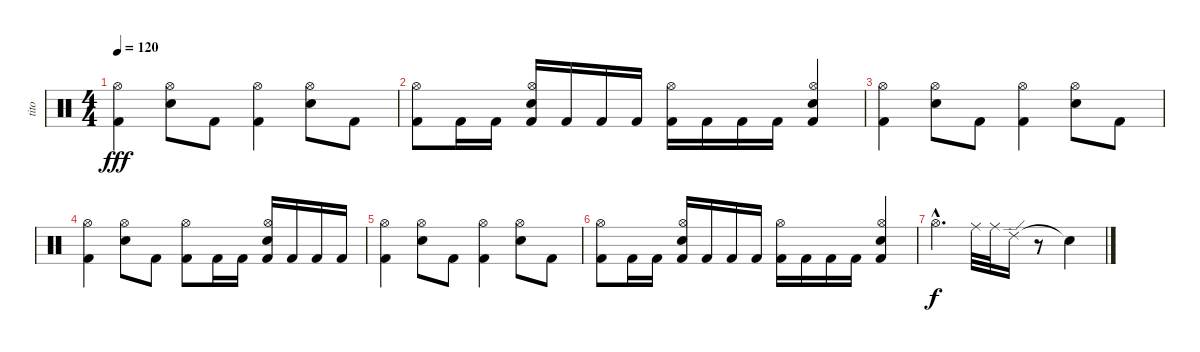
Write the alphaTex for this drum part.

\track ("tito" "tito") {instrument percussion}
\staff {score}
\articulation defaults
\ts (4 4)
\tempo 120
\clef neutral
\ks c
("Kick (hit) 2" "Hi-Hat (open)").4{dy fff} ("Electric Snare (hit)" "Hi-Hat (open)").8 "Kick (hit) 2".8 ("Kick (hit) 2" "Hi-Hat (open)").4 ("Electric Snare (hit)" "Hi-Hat (open)").8 "Kick (hit) 2".8 |
("Kick (hit) 2" "Hi-Hat (open)").8 "Kick (hit) 2".16 "Kick (hit) 2".16 ("Kick (hit) 2" "Electric Snare (hit)" "Hi-Hat (open)").16 "Kick (hit) 2".16 "Kick (hit) 2".16 "Kick (hit) 2".16 ("Kick (hit) 2" "Hi-Hat (open)").16 "Kick (hit) 2".16 "Kick (hit) 2".16 "Kick (hit) 2".16 ("Kick (hit) 2" "Electric Snare (hit)" "Hi-Hat (open)").4 |
("Kick (hit) 2" "Hi-Hat (open)").4 ("Electric Snare (hit)" "Hi-Hat (open)").8 "Kick (hit) 2".8 ("Kick (hit) 2" "Hi-Hat (open)").4 ("Electric Snare (hit)" "Hi-Hat (open)").8 "Kick (hit) 2".8 |
("Kick (hit) 2" "Hi-Hat (open)").4 ("Electric Snare (hit)" "Hi-Hat (open)").8 "Kick (hit) 2".8 ("Kick (hit) 2" "Hi-Hat (open)").8 "Kick (hit) 2".16 "Kick (hit) 2".16 ("Kick (hit) 2" "Electric Snare (hit)" "Hi-Hat (open)").16 "Kick (hit) 2".16 "Kick (hit) 2".16 "Kick (hit) 2".16 |
("Kick (hit) 2" "Hi-Hat (open)").4 ("Electric Snare (hit)" "Hi-Hat (open)").8 "Kick (hit) 2".8 ("Kick (hit) 2" "Hi-Hat (open)").4 ("Electric Snare (hit)" "Hi-Hat (open)").8 "Kick (hit) 2".8 |
("Kick (hit) 2" "Hi-Hat (open)").8 "Kick (hit) 2".16 "Kick (hit) 2".16 ("Kick (hit) 2" "Electric Snare (hit)" "Hi-Hat (open)").16 "Kick (hit) 2".16 "Kick (hit) 2".16 "Kick (hit) 2".16 ("Kick (hit) 2" "Hi-Hat (open)").16 "Kick (hit) 2".16 "Kick (hit) 2".16 "Kick (hit) 2".16 ("Kick (hit) 2" "Electric Snare (hit)" "Hi-Hat (open)").4 |
"Hi-Hat (open)"{hac}.4{d dy f} "Ride (middle)".32 "Ride (middle)".32 "Ride (edge) 2".16 r.8 "Snare (hit)"{t}.4
